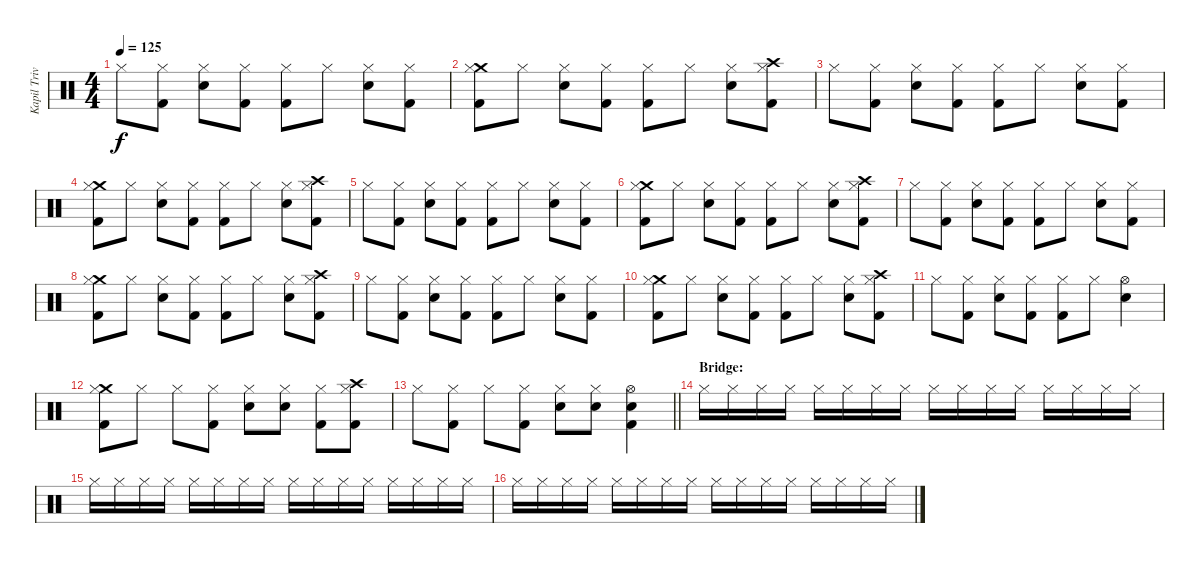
\track ("Kapil Trivedi (Percussion)" "Kapil Triv") {instrument percussion}
\staff {score}
\articulation defaults
\ts (4 4)
\tempo 125
\clef neutral
\ks c "Hi-Hat (closed)".8{dy f}
("Hi-Hat (closed)" "Kick (hit) 2").8 ("Hi-Hat (closed)" "Snare (hit) 2").8 ("Hi-Hat (closed)" "Kick (hit) 2").8 ("Hi-Hat (closed)" "Kick (hit) 2").8 "Hi-Hat (closed)".8 ("Hi-Hat (closed)" "Snare (hit) 2").8 ("Hi-Hat (closed)" "Kick (hit) 2").8 |
("Crash medium (hit)" "Hi-Hat (closed)" "Kick (hit) 2").8 "Hi-Hat (closed)".8 ("Hi-Hat (closed)" "Snare (hit) 2").8 ("Hi-Hat (closed)" "Kick (hit) 2").8 ("Hi-Hat (closed)" "Kick (hit) 2").8 "Hi-Hat (closed)".8 ("Hi-Hat (closed)" "Snare (hit) 2").8 ("Crash high (hit)" "Hi-Hat (closed)" "Kick (hit) 2").8 |
"Hi-Hat (closed)".8 ("Hi-Hat (closed)" "Kick (hit) 2").8 ("Hi-Hat (closed)" "Snare (hit) 2").8 ("Hi-Hat (closed)" "Kick (hit) 2").8 ("Hi-Hat (closed)" "Kick (hit) 2").8 "Hi-Hat (closed)".8 ("Hi-Hat (closed)" "Snare (hit) 2").8 ("Hi-Hat (closed)" "Kick (hit) 2").8 |
("Crash medium (hit)" "Hi-Hat (closed)" "Kick (hit) 2").8 "Hi-Hat (closed)".8 ("Hi-Hat (closed)" "Snare (hit) 2").8 ("Hi-Hat (closed)" "Kick (hit) 2").8 ("Hi-Hat (closed)" "Kick (hit) 2").8 "Hi-Hat (closed)".8 ("Hi-Hat (closed)" "Snare (hit) 2").8 ("Crash high (hit)" "Hi-Hat (closed)" "Kick (hit) 2").8 |
"Hi-Hat (closed)".8 ("Hi-Hat (closed)" "Kick (hit) 2").8 ("Hi-Hat (closed)" "Snare (hit) 2").8 ("Hi-Hat (closed)" "Kick (hit) 2").8 ("Hi-Hat (closed)" "Kick (hit) 2").8 "Hi-Hat (closed)".8 ("Hi-Hat (closed)" "Snare (hit) 2").8 ("Hi-Hat (closed)" "Kick (hit) 2").8 |
("Crash medium (hit)" "Hi-Hat (closed)" "Kick (hit) 2").8 "Hi-Hat (closed)".8 ("Hi-Hat (closed)" "Snare (hit) 2").8 ("Hi-Hat (closed)" "Kick (hit) 2").8 ("Hi-Hat (closed)" "Kick (hit) 2").8 "Hi-Hat (closed)".8 ("Hi-Hat (closed)" "Snare (hit) 2").8 ("Crash high (hit)" "Hi-Hat (closed)" "Kick (hit) 2").8 |
"Hi-Hat (closed)".8 ("Hi-Hat (closed)" "Kick (hit) 2").8 ("Hi-Hat (closed)" "Snare (hit) 2").8 ("Hi-Hat (closed)" "Kick (hit) 2").8 ("Hi-Hat (closed)" "Kick (hit) 2").8 "Hi-Hat (closed)".8 ("Hi-Hat (closed)" "Snare (hit) 2").8 ("Hi-Hat (closed)" "Kick (hit) 2").8 |
("Crash medium (hit)" "Hi-Hat (closed)" "Kick (hit) 2").8 "Hi-Hat (closed)".8 ("Hi-Hat (closed)" "Snare (hit) 2").8 ("Hi-Hat (closed)" "Kick (hit) 2").8 ("Hi-Hat (closed)" "Kick (hit) 2").8 "Hi-Hat (closed)".8 ("Hi-Hat (closed)" "Snare (hit) 2").8 ("Crash high (hit)" "Hi-Hat (closed)" "Kick (hit) 2").8 |
"Hi-Hat (closed)".8 ("Hi-Hat (closed)" "Kick (hit) 2").8 ("Hi-Hat (closed)" "Snare (hit) 2").8 ("Hi-Hat (closed)" "Kick (hit) 2").8 ("Hi-Hat (closed)" "Kick (hit) 2").8 "Hi-Hat (closed)".8 ("Hi-Hat (closed)" "Snare (hit) 2").8 ("Hi-Hat (closed)" "Kick (hit) 2").8 |
("Crash medium (hit)" "Hi-Hat (closed)" "Kick (hit) 2").8 "Hi-Hat (closed)".8 ("Hi-Hat (closed)" "Snare (hit) 2").8 ("Hi-Hat (closed)" "Kick (hit) 2").8 ("Hi-Hat (closed)" "Kick (hit) 2").8 "Hi-Hat (closed)".8 ("Hi-Hat (closed)" "Snare (hit) 2").8 ("Crash high (hit)" "Hi-Hat (closed)" "Kick (hit) 2").8 |
"Hi-Hat (closed)".8 ("Hi-Hat (closed)" "Kick (hit) 2").8 ("Hi-Hat (closed)" "Snare (hit) 2").8 ("Hi-Hat (closed)" "Kick (hit) 2").8 ("Hi-Hat (closed)" "Kick (hit) 2").8 "Hi-Hat (closed)".8 ("Hi-Hat (open)" "Snare (hit) 2").4 |
("Crash medium (hit)" "Hi-Hat (closed)" "Kick (hit) 2").8 "Hi-Hat (closed)".8 "Hi-Hat (closed)".8 ("Hi-Hat (closed)" "Kick (hit) 2").8 ("Hi-Hat (closed)" "Snare (hit) 2").8 ("Hi-Hat (closed)" "Snare (hit) 2").8 ("Hi-Hat (closed)" "Kick (hit) 2").8 ("Crash high (hit)" "Hi-Hat (closed)" "Kick (hit) 2").8 |
\barLineRight lightlight "Hi-Hat (closed)".8
("Hi-Hat (closed)" "Kick (hit) 2").8 "Hi-Hat (closed)".8 ("Hi-Hat (closed)" "Kick (hit) 2").8 ("Hi-Hat (closed)" "Snare (hit) 2").8 ("Hi-Hat (closed)" "Snare (hit) 2").8 ("Hi-Hat (open)" "Snare (hit) 2" "Kick (hit) 2").4 |
\section ("" "Bridge:")
"Hi-Hat (closed)".16 "Hi-Hat (closed)".16 "Hi-Hat (closed)".16 "Hi-Hat (closed)".16 "Hi-Hat (closed)".16 "Hi-Hat (closed)".16 "Hi-Hat (closed)".16 "Hi-Hat (closed)".16 "Hi-Hat (closed)".16 "Hi-Hat (closed)".16 "Hi-Hat (closed)".16 "Hi-Hat (closed)".16 "Hi-Hat (closed)".16 "Hi-Hat (closed)".16 "Hi-Hat (closed)".16 "Hi-Hat (closed)".16 |
"Hi-Hat (closed)".16 "Hi-Hat (closed)".16 "Hi-Hat (closed)".16 "Hi-Hat (closed)".16 "Hi-Hat (closed)".16 "Hi-Hat (closed)".16 "Hi-Hat (closed)".16 "Hi-Hat (closed)".16 "Hi-Hat (closed)".16 "Hi-Hat (closed)".16 "Hi-Hat (closed)".16 "Hi-Hat (closed)".16 "Hi-Hat (closed)".16 "Hi-Hat (closed)".16 "Hi-Hat (closed)".16 "Hi-Hat (closed)".16 |
"Hi-Hat (closed)".16 "Hi-Hat (closed)".16 "Hi-Hat (closed)".16 "Hi-Hat (closed)".16 "Hi-Hat (closed)".16 "Hi-Hat (closed)".16 "Hi-Hat (closed)".16 "Hi-Hat (closed)".16 "Hi-Hat (closed)".16 "Hi-Hat (closed)".16 "Hi-Hat (closed)".16 "Hi-Hat (closed)".16 "Hi-Hat (closed)".16 "Hi-Hat (closed)".16 "Hi-Hat (closed)".16 "Hi-Hat (closed)".16
